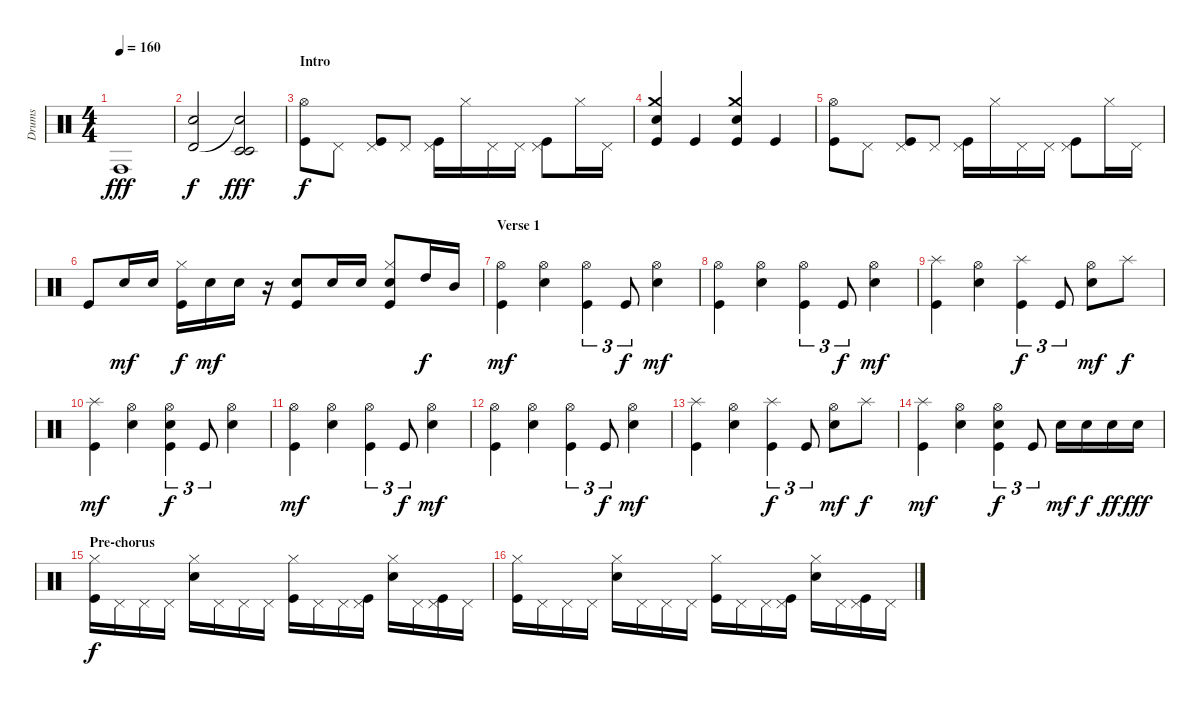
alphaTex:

\track ("Drums" "Drums") {instrument percussion}
\staff {score}
\articulation defaults
\ts (4 4)
\tempo 160
\clef neutral
\ks c "Conga high (hit)".1{dy fff}
|
("Timbale high (hit)" "Snare (hit)").2{dy f} ("Snare (hit)"{t} "Timbale low (hit)" "Timbale low (hit)").2{dy fff} |
\section ("" "Intro")
("Hi-Hat (open)" "Kick (hit)").8{dy f} "Pedal Hi-Hat (hit)".8 ("Pedal Hi-Hat (hit)" "Kick (hit)").8 "Pedal Hi-Hat (hit)".8 ("Pedal Hi-Hat (hit)" "Kick (hit)").16 "Hi-Hat (closed)".16 "Pedal Hi-Hat (hit)".16 "Pedal Hi-Hat (hit)".16 ("Pedal Hi-Hat (hit)" "Kick (hit)").8 "Hi-Hat (closed)".16 "Pedal Hi-Hat (hit)".16 |
("Crash medium (hit)" "Electric Snare (hit)" "Kick (hit)").4 "Kick (hit)".4 ("Crash medium (hit)" "Electric Snare (hit)" "Kick (hit)").4 "Kick (hit)".4 |
("Hi-Hat (open)" "Kick (hit)").8 "Pedal Hi-Hat (hit)".8 ("Pedal Hi-Hat (hit)" "Kick (hit)").8 "Pedal Hi-Hat (hit)".8 ("Pedal Hi-Hat (hit)" "Kick (hit)").16 "Hi-Hat (closed)".16 "Pedal Hi-Hat (hit)".16 "Pedal Hi-Hat (hit)".16 ("Pedal Hi-Hat (hit)" "Kick (hit)").8 "Hi-Hat (closed)".16 "Pedal Hi-Hat (hit)".16 |
"Kick (hit)".8 "Electric Snare (hit)".16{dy mf} "Electric Snare (hit)".16 ("Hi-Hat (closed)" "Kick (hit)").16{dy f} "Electric Snare (hit)".16{dy mf} "Electric Snare (hit)".16 r.16 ("Electric Snare (hit)" "Kick (hit)").8 "Electric Snare (hit)".16 "Electric Snare (hit)".16 ("Hi-Hat (closed)" "Electric Snare (hit)" "Kick (hit)").8 "High Tom (hit)".16{dy f} "Mid Tom (hit)".16 |
\section ("" "Verse 1")
("Hi-Hat (open)" "Kick (hit)").4{dy mf} ("Hi-Hat (open)" "Electric Snare (hit)").4 ("Hi-Hat (open)" "Kick (hit)").4{tu (3 2)} "Kick (hit)".8{tu (3 2) dy f} ("Hi-Hat (open)" "Electric Snare (hit)").4{dy mf} |
("Hi-Hat (open)" "Kick (hit)").4 ("Hi-Hat (open)" "Electric Snare (hit)").4 ("Hi-Hat (open)" "Kick (hit)").4{tu (3 2)} "Kick (hit)".8{tu (3 2) dy f} ("Hi-Hat (open)" "Electric Snare (hit)").4{dy mf} |
("Splash (hit)" "Kick (hit)").4 ("Hi-Hat (open)" "Electric Snare (hit)").4 ("Splash (hit)" "Kick (hit)").4{tu (3 2) dy f} "Kick (hit)".8{tu (3 2)} ("Hi-Hat (open)" "Electric Snare (hit)").8{dy mf} "Splash (hit)".8{dy f} |
("Splash (hit)" "Kick (hit)").4{dy mf} ("Hi-Hat (open)" "Electric Snare (hit)").4 ("Hi-Hat (open)" "Electric Snare (hit)" "Kick (hit)").4{tu (3 2) dy f} "Kick (hit)".8{tu (3 2)} ("Hi-Hat (open)" "Electric Snare (hit)").4 |
("Hi-Hat (open)" "Kick (hit)").4{dy mf} ("Hi-Hat (open)" "Electric Snare (hit)").4 ("Hi-Hat (open)" "Kick (hit)").4{tu (3 2)} "Kick (hit)".8{tu (3 2) dy f} ("Hi-Hat (open)" "Electric Snare (hit)").4{dy mf} |
("Hi-Hat (open)" "Kick (hit)").4 ("Hi-Hat (open)" "Electric Snare (hit)").4 ("Hi-Hat (open)" "Kick (hit)").4{tu (3 2)} "Kick (hit)".8{tu (3 2) dy f} ("Hi-Hat (open)" "Electric Snare (hit)").4{dy mf} |
("Splash (hit)" "Kick (hit)").4 ("Hi-Hat (open)" "Electric Snare (hit)").4 ("Splash (hit)" "Kick (hit)").4{tu (3 2) dy f} "Kick (hit)".8{tu (3 2)} ("Hi-Hat (open)" "Electric Snare (hit)").8{dy mf} "Splash (hit)".8{dy f} |
("Splash (hit)" "Kick (hit)").4{dy mf} ("Hi-Hat (open)" "Electric Snare (hit)").4 ("Hi-Hat (open)" "Electric Snare (hit)" "Kick (hit)").4{tu (3 2) dy f} "Kick (hit)".8{tu (3 2)} "Electric Snare (hit)".16{dy mf} "Electric Snare (hit)".16{dy f} "Electric Snare (hit)".16{dy ff} "Electric Snare (hit)".16{dy fff} |
\section ("" "Pre-chorus")
("Hi-Hat (closed)" "Kick (hit)").16{dy f} "Pedal Hi-Hat (hit)".16 "Pedal Hi-Hat (hit)".16 "Pedal Hi-Hat (hit)".16 ("Hi-Hat (closed)" "Electric Snare (hit)").16 "Pedal Hi-Hat (hit)".16 "Pedal Hi-Hat (hit)".16 "Pedal Hi-Hat (hit)".16 ("Hi-Hat (closed)" "Kick (hit)").16 "Pedal Hi-Hat (hit)".16 "Pedal Hi-Hat (hit)".16 ("Pedal Hi-Hat (hit)" "Kick (hit)").16 ("Hi-Hat (closed)" "Electric Snare (hit)").16 "Pedal Hi-Hat (hit)".16 ("Pedal Hi-Hat (hit)" "Kick (hit)").16 "Pedal Hi-Hat (hit)".16 |
("Hi-Hat (closed)" "Kick (hit)").16 "Pedal Hi-Hat (hit)".16 "Pedal Hi-Hat (hit)".16 "Pedal Hi-Hat (hit)".16 ("Hi-Hat (closed)" "Electric Snare (hit)").16 "Pedal Hi-Hat (hit)".16 "Pedal Hi-Hat (hit)".16 "Pedal Hi-Hat (hit)".16 ("Hi-Hat (closed)" "Kick (hit)").16 "Pedal Hi-Hat (hit)".16 "Pedal Hi-Hat (hit)".16 ("Pedal Hi-Hat (hit)" "Kick (hit)").16 ("Hi-Hat (closed)" "Electric Snare (hit)").16 "Pedal Hi-Hat (hit)".16 ("Pedal Hi-Hat (hit)" "Kick (hit)").16 "Pedal Hi-Hat (hit)".16
